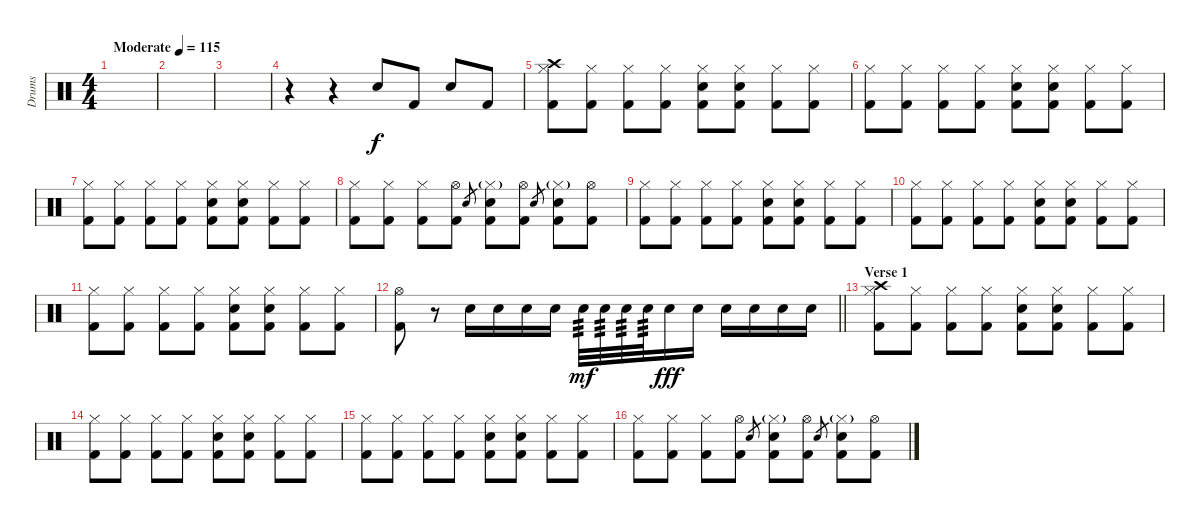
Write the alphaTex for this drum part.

\track ("Drums" "Drums") {instrument percussion}
\staff {score}
\articulation defaults
\ts (4 4)
\tempo (115 "Moderate")
\clef neutral
\ks c
|
|
|
r.4 r.4 "Electric Snare (hit)".8 "Kick (hit) 2".8 "Electric Snare (hit)".8 "Kick (hit) 2".8 |
("Crash high (hit)" "Hi-Hat (closed)" "Kick (hit) 2").8 ("Hi-Hat (closed)" "Kick (hit) 2").8 ("Hi-Hat (closed)" "Kick (hit) 2").8 ("Hi-Hat (closed)" "Kick (hit) 2").8 ("Hi-Hat (closed)" "Electric Snare (hit)" "Kick (hit) 2").8 ("Hi-Hat (closed)" "Electric Snare (hit)" "Kick (hit) 2").8 ("Hi-Hat (closed)" "Kick (hit) 2").8 ("Hi-Hat (closed)" "Kick (hit) 2").8 |
("Hi-Hat (closed)" "Kick (hit) 2").8 ("Hi-Hat (closed)" "Kick (hit) 2").8 ("Hi-Hat (closed)" "Kick (hit) 2").8 ("Hi-Hat (closed)" "Kick (hit) 2").8 ("Hi-Hat (closed)" "Electric Snare (hit)" "Kick (hit) 2").8 ("Hi-Hat (closed)" "Electric Snare (hit)" "Kick (hit) 2").8 ("Hi-Hat (closed)" "Kick (hit) 2").8 ("Hi-Hat (closed)" "Kick (hit) 2").8 |
("Hi-Hat (closed)" "Kick (hit) 2").8 ("Hi-Hat (closed)" "Kick (hit) 2").8 ("Hi-Hat (closed)" "Kick (hit) 2").8 ("Hi-Hat (closed)" "Kick (hit) 2").8 ("Hi-Hat (closed)" "Electric Snare (hit)" "Kick (hit) 2").8 ("Hi-Hat (closed)" "Electric Snare (hit)" "Kick (hit) 2").8 ("Hi-Hat (closed)" "Kick (hit) 2").8 ("Hi-Hat (closed)" "Kick (hit) 2").8 |
("Hi-Hat (closed)" "Kick (hit) 2").8 ("Hi-Hat (closed)" "Kick (hit) 2").8 ("Hi-Hat (closed)" "Kick (hit) 2").8 ("Hi-Hat (open)" "Kick (hit) 2").8 "Electric Snare (hit)".8{gr} ("Hi-Hat (closed)"{g} "Electric Snare (hit)" "Kick (hit) 2").8 ("Hi-Hat (open)" "Kick (hit) 2").8 "Electric Snare (hit)".8{gr} ("Hi-Hat (closed)"{g} "Electric Snare (hit)" "Kick (hit) 2").8 ("Hi-Hat (open)" "Kick (hit) 2").8 |
("Hi-Hat (closed)" "Kick (hit) 2").8 ("Hi-Hat (closed)" "Kick (hit) 2").8 ("Hi-Hat (closed)" "Kick (hit) 2").8 ("Hi-Hat (closed)" "Kick (hit) 2").8 ("Hi-Hat (closed)" "Electric Snare (hit)" "Kick (hit) 2").8 ("Hi-Hat (closed)" "Electric Snare (hit)" "Kick (hit) 2").8 ("Hi-Hat (closed)" "Kick (hit) 2").8 ("Hi-Hat (closed)" "Kick (hit) 2").8 |
("Hi-Hat (closed)" "Kick (hit) 2").8 ("Hi-Hat (closed)" "Kick (hit) 2").8 ("Hi-Hat (closed)" "Kick (hit) 2").8 ("Hi-Hat (closed)" "Kick (hit) 2").8 ("Hi-Hat (closed)" "Electric Snare (hit)" "Kick (hit) 2").8 ("Hi-Hat (closed)" "Electric Snare (hit)" "Kick (hit) 2").8 ("Hi-Hat (closed)" "Kick (hit) 2").8 ("Hi-Hat (closed)" "Kick (hit) 2").8 |
("Hi-Hat (closed)" "Kick (hit) 2").8 ("Hi-Hat (closed)" "Kick (hit) 2").8 ("Hi-Hat (closed)" "Kick (hit) 2").8 ("Hi-Hat (closed)" "Kick (hit) 2").8 ("Hi-Hat (closed)" "Electric Snare (hit)" "Kick (hit) 2").8 ("Hi-Hat (closed)" "Electric Snare (hit)" "Kick (hit) 2").8 ("Hi-Hat (closed)" "Kick (hit) 2").8 ("Hi-Hat (closed)" "Kick (hit) 2").8 |
\barLineRight lightlight
("Hi-Hat (open)" "Kick (hit) 2").8 r.8 "Electric Snare (hit)".16 "Electric Snare (hit)".16 "Electric Snare (hit)".16 "Electric Snare (hit)".16 "Electric Snare (hit)".32{tp 3 dy mf} "Electric Snare (hit)".32{tp 3} "Electric Snare (hit)".32{tp 3} "Electric Snare (hit)".32{tp 3} "Electric Snare (hit)".16{dy fff} "Electric Snare (hit)".16 "Electric Snare (hit)".16 "Electric Snare (hit)".16 "Electric Snare (hit)".16 "Electric Snare (hit)".16 |
\section ("" "Verse 1")
("Crash high (hit)" "Hi-Hat (closed)" "Kick (hit) 2").8 ("Hi-Hat (closed)" "Kick (hit) 2").8 ("Hi-Hat (closed)" "Kick (hit) 2").8 ("Hi-Hat (closed)" "Kick (hit) 2").8 ("Hi-Hat (closed)" "Electric Snare (hit)" "Kick (hit) 2").8 ("Hi-Hat (closed)" "Electric Snare (hit)" "Kick (hit) 2").8 ("Hi-Hat (closed)" "Kick (hit) 2").8 ("Hi-Hat (closed)" "Kick (hit) 2").8 |
("Hi-Hat (closed)" "Kick (hit) 2").8 ("Hi-Hat (closed)" "Kick (hit) 2").8 ("Hi-Hat (closed)" "Kick (hit) 2").8 ("Hi-Hat (closed)" "Kick (hit) 2").8 ("Hi-Hat (closed)" "Electric Snare (hit)" "Kick (hit) 2").8 ("Hi-Hat (closed)" "Electric Snare (hit)" "Kick (hit) 2").8 ("Hi-Hat (closed)" "Kick (hit) 2").8 ("Hi-Hat (closed)" "Kick (hit) 2").8 |
("Hi-Hat (closed)" "Kick (hit) 2").8 ("Hi-Hat (closed)" "Kick (hit) 2").8 ("Hi-Hat (closed)" "Kick (hit) 2").8 ("Hi-Hat (closed)" "Kick (hit) 2").8 ("Hi-Hat (closed)" "Electric Snare (hit)" "Kick (hit) 2").8 ("Hi-Hat (closed)" "Electric Snare (hit)" "Kick (hit) 2").8 ("Hi-Hat (closed)" "Kick (hit) 2").8 ("Hi-Hat (closed)" "Kick (hit) 2").8 |
("Hi-Hat (closed)" "Kick (hit) 2").8 ("Hi-Hat (closed)" "Kick (hit) 2").8 ("Hi-Hat (closed)" "Kick (hit) 2").8 ("Hi-Hat (open)" "Kick (hit) 2").8 "Electric Snare (hit)".8{gr} ("Hi-Hat (closed)"{g} "Electric Snare (hit)" "Kick (hit) 2").8 ("Hi-Hat (open)" "Kick (hit) 2").8 "Electric Snare (hit)".8{gr} ("Hi-Hat (closed)"{g} "Electric Snare (hit)" "Kick (hit) 2").8 ("Hi-Hat (open)" "Kick (hit) 2").8
